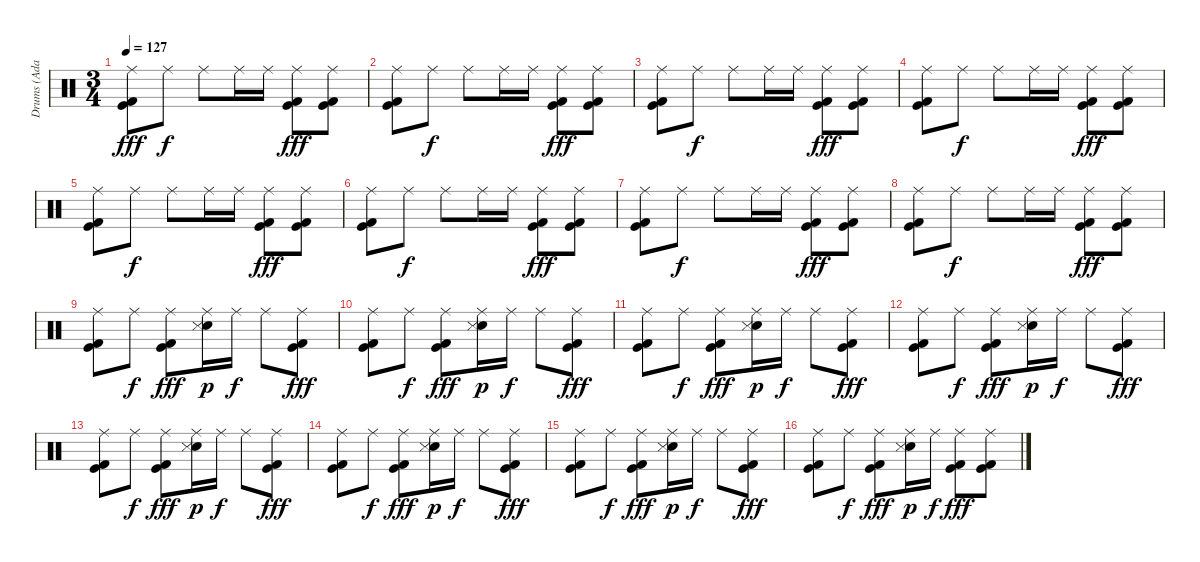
\track ("Drums (Adam)" "Drums (Ada") {instrument percussion}
\staff {score}
\articulation defaults
\ts (3 4)
\tempo 127
\clef neutral
\ks c
("Ride (middle)" "Kick (hit)" "Kick (hit) 2").8{dy fff} "Ride (middle)".8{dy f} "Ride (middle)".8 "Ride (middle)".16 "Ride (middle)".16 ("Ride (middle)" "Kick (hit)" "Kick (hit) 2").8{dy fff} ("Ride (middle)" "Kick (hit)" "Kick (hit) 2").8 |
("Ride (middle)" "Kick (hit)" "Kick (hit) 2").8 "Ride (middle)".8{dy f} "Ride (middle)".8 "Ride (middle)".16 "Ride (middle)".16 ("Ride (middle)" "Kick (hit)" "Kick (hit) 2").8{dy fff} ("Ride (middle)" "Kick (hit)" "Kick (hit) 2").8 |
("Ride (middle)" "Kick (hit)" "Kick (hit) 2").8 "Ride (middle)".8{dy f} "Ride (middle)".8 "Ride (middle)".16 "Ride (middle)".16 ("Ride (middle)" "Kick (hit)" "Kick (hit) 2").8{dy fff} ("Ride (middle)" "Kick (hit)" "Kick (hit) 2").8 |
("Ride (middle)" "Kick (hit)" "Kick (hit) 2").8 "Ride (middle)".8{dy f} "Ride (middle)".8 "Ride (middle)".16 "Ride (middle)".16 ("Ride (middle)" "Kick (hit)" "Kick (hit) 2").8{dy fff} ("Ride (middle)" "Kick (hit)" "Kick (hit) 2").8 |
("Ride (middle)" "Kick (hit)" "Kick (hit) 2").8 "Ride (middle)".8{dy f} "Ride (middle)".8 "Ride (middle)".16 "Ride (middle)".16 ("Ride (middle)" "Kick (hit)" "Kick (hit) 2").8{dy fff} ("Ride (middle)" "Kick (hit)" "Kick (hit) 2").8 |
("Ride (middle)" "Kick (hit)" "Kick (hit) 2").8 "Ride (middle)".8{dy f} "Ride (middle)".8 "Ride (middle)".16 "Ride (middle)".16 ("Ride (middle)" "Kick (hit)" "Kick (hit) 2").8{dy fff} ("Ride (middle)" "Kick (hit)" "Kick (hit) 2").8 |
("Ride (middle)" "Kick (hit)" "Kick (hit) 2").8 "Ride (middle)".8{dy f} "Ride (middle)".8 "Ride (middle)".16 "Ride (middle)".16 ("Ride (middle)" "Kick (hit)" "Kick (hit) 2").8{dy fff} ("Ride (middle)" "Kick (hit)" "Kick (hit) 2").8 |
("Ride (middle)" "Kick (hit)" "Kick (hit) 2").8 "Ride (middle)".8{dy f} "Ride (middle)".8 "Ride (middle)".16 "Ride (middle)".16 ("Ride (middle)" "Kick (hit)" "Kick (hit) 2").8{dy fff} ("Ride (middle)" "Kick (hit)" "Kick (hit) 2").8 |
("Ride (middle)" "Kick (hit)" "Kick (hit) 2").8 "Ride (middle)".8{dy f} ("Ride (middle)" "Kick (hit)" "Kick (hit) 2").8{dy fff} ("Ride (middle)" "Electric Snare (hit)" "Snare (side stick) 3").16{dy p} "Ride (middle)".16{dy f} "Ride (middle)".8 ("Ride (middle)" "Kick (hit)" "Kick (hit) 2").8{dy fff} |
("Ride (middle)" "Kick (hit)" "Kick (hit) 2").8 "Ride (middle)".8{dy f} ("Ride (middle)" "Kick (hit)" "Kick (hit) 2").8{dy fff} ("Ride (middle)" "Electric Snare (hit)" "Snare (side stick) 3").16{dy p} "Ride (middle)".16{dy f} "Ride (middle)".8 ("Ride (middle)" "Kick (hit)" "Kick (hit) 2").8{dy fff} |
("Ride (middle)" "Kick (hit)" "Kick (hit) 2").8 "Ride (middle)".8{dy f} ("Ride (middle)" "Kick (hit)" "Kick (hit) 2").8{dy fff} ("Ride (middle)" "Electric Snare (hit)" "Snare (side stick) 3").16{dy p} "Ride (middle)".16{dy f} "Ride (middle)".8 ("Ride (middle)" "Kick (hit)" "Kick (hit) 2").8{dy fff} |
("Ride (middle)" "Kick (hit)" "Kick (hit) 2").8 "Ride (middle)".8{dy f} ("Ride (middle)" "Kick (hit)" "Kick (hit) 2").8{dy fff} ("Ride (middle)" "Electric Snare (hit)" "Snare (side stick) 3").16{dy p} "Ride (middle)".16{dy f} "Ride (middle)".8 ("Ride (middle)" "Kick (hit)" "Kick (hit) 2").8{dy fff} |
("Ride (middle)" "Kick (hit)" "Kick (hit) 2").8 "Ride (middle)".8{dy f} ("Ride (middle)" "Kick (hit)" "Kick (hit) 2").8{dy fff} ("Ride (middle)" "Electric Snare (hit)" "Snare (side stick) 3").16{dy p} "Ride (middle)".16{dy f} "Ride (middle)".8 ("Ride (middle)" "Kick (hit)" "Kick (hit) 2").8{dy fff} |
("Ride (middle)" "Kick (hit)" "Kick (hit) 2").8 "Ride (middle)".8{dy f} ("Ride (middle)" "Kick (hit)" "Kick (hit) 2").8{dy fff} ("Ride (middle)" "Electric Snare (hit)" "Snare (side stick) 3").16{dy p} "Ride (middle)".16{dy f} "Ride (middle)".8 ("Ride (middle)" "Kick (hit)" "Kick (hit) 2").8{dy fff} |
("Ride (middle)" "Kick (hit)" "Kick (hit) 2").8 "Ride (middle)".8{dy f} ("Ride (middle)" "Kick (hit)" "Kick (hit) 2").8{dy fff} ("Ride (middle)" "Electric Snare (hit)" "Snare (side stick) 3").16{dy p} "Ride (middle)".16{dy f} "Ride (middle)".8 ("Ride (middle)" "Kick (hit)" "Kick (hit) 2").8{dy fff} |
("Ride (middle)" "Kick (hit)" "Kick (hit) 2").8 "Ride (middle)".8{dy f} ("Ride (middle)" "Kick (hit)" "Kick (hit) 2").8{dy fff} ("Ride (middle)" "Electric Snare (hit)" "Snare (side stick) 3").16{dy p} "Ride (middle)".16{dy f} ("Ride (middle)" "Kick (hit)" "Kick (hit) 2").8{dy fff} ("Ride (middle)" "Kick (hit)" "Kick (hit) 2").8
